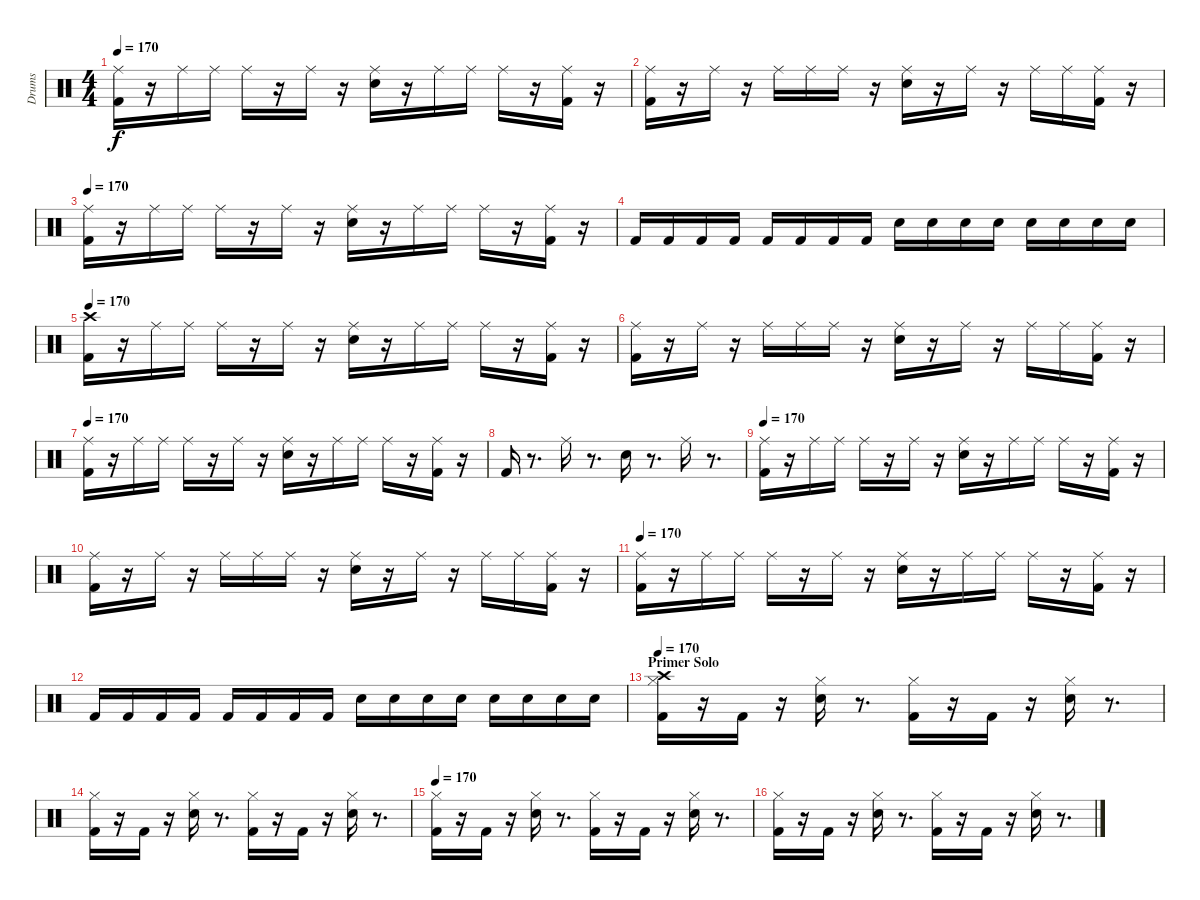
\track ("Drums               " "Drums     ") {instrument percussion}
\staff {score}
\articulation defaults
\ts (4 4)
\tempo 170
\clef neutral
\ks c
("Kick (hit) 2" "Ride (middle)").16{dy f} r.16 "Ride (middle)".16 "Ride (middle)".16 "Ride (middle)".16 r.16 "Ride (middle)".16 r.16 ("Snare (hit) 2" "Ride (middle)").16 r.16 "Ride (middle)".16 "Ride (middle)".16 "Ride (middle)".16 r.16 ("Kick (hit) 2" "Ride (middle)").16 r.16 |
("Kick (hit) 2" "Ride (middle)").16 r.16 "Ride (middle)".16 r.16 "Ride (middle)".16 "Ride (middle)".16 "Ride (middle)".16 r.16 ("Snare (hit) 2" "Ride (middle)").16 r.16 "Ride (middle)".16 r.16 "Ride (middle)".16 "Ride (middle)".16 ("Ride (middle)" "Kick (hit) 2").16 r.16 |
\tempo 170
("Kick (hit) 2" "Ride (middle)").16 r.16 "Ride (middle)".16 "Ride (middle)".16 "Ride (middle)".16 r.16 "Ride (middle)".16 r.16 ("Snare (hit) 2" "Ride (middle)").16 r.16 "Ride (middle)".16 "Ride (middle)".16 "Ride (middle)".16 r.16 ("Kick (hit) 2" "Ride (middle)").16 r.16 |
"Kick (hit) 2".16 "Kick (hit) 2".16 "Kick (hit) 2".16 "Kick (hit) 2".16 "Kick (hit) 2".16 "Kick (hit) 2".16 "Kick (hit) 2".16 "Kick (hit) 2".16 "Snare (hit) 2".16 "Snare (hit) 2".16 "Snare (hit) 2".16 "Snare (hit) 2".16 "Snare (hit) 2".16 "Snare (hit) 2".16 "Snare (hit) 2".16 "Snare (hit) 2".16 |
\tempo 170
("Kick (hit) 2" "Crash high (hit)").16 r.16 "Ride (middle)".16 "Ride (middle)".16 "Ride (middle)".16 r.16 "Ride (middle)".16 r.16 ("Snare (hit) 2" "Ride (middle)").16 r.16 "Ride (middle)".16 "Ride (middle)".16 "Ride (middle)".16 r.16 ("Kick (hit) 2" "Ride (middle)").16 r.16 |
("Kick (hit) 2" "Ride (middle)").16 r.16 "Ride (middle)".16 r.16 "Ride (middle)".16 "Ride (middle)".16 "Ride (middle)".16 r.16 ("Snare (hit) 2" "Ride (middle)").16 r.16 "Ride (middle)".16 r.16 "Ride (middle)".16 "Ride (middle)".16 ("Ride (middle)" "Kick (hit) 2").16 r.16 |
\tempo 170
("Kick (hit) 2" "Ride (middle)").16 r.16 "Ride (middle)".16 "Ride (middle)".16 "Ride (middle)".16 r.16 "Ride (middle)".16 r.16 ("Snare (hit) 2" "Ride (middle)").16 r.16 "Ride (middle)".16 "Ride (middle)".16 "Ride (middle)".16 r.16 ("Kick (hit) 2" "Ride (middle)").16 r.16 |
"Kick (hit) 2".16 r.8{d} "Ride (middle)".16 r.8{d} "Snare (hit) 2".16 r.8{d} "Ride (middle)".16 r.8{d} |
\tempo 170
("Kick (hit) 2" "Ride (middle)").16 r.16 "Ride (middle)".16 "Ride (middle)".16 "Ride (middle)".16 r.16 "Ride (middle)".16 r.16 ("Snare (hit) 2" "Ride (middle)").16 r.16 "Ride (middle)".16 "Ride (middle)".16 "Ride (middle)".16 r.16 ("Kick (hit) 2" "Ride (middle)").16 r.16 |
("Kick (hit) 2" "Ride (middle)").16 r.16 "Ride (middle)".16 r.16 "Ride (middle)".16 "Ride (middle)".16 "Ride (middle)".16 r.16 ("Snare (hit) 2" "Ride (middle)").16 r.16 "Ride (middle)".16 r.16 "Ride (middle)".16 "Ride (middle)".16 ("Ride (middle)" "Kick (hit) 2").16 r.16 |
\tempo 170
("Kick (hit) 2" "Ride (middle)").16 r.16 "Ride (middle)".16 "Ride (middle)".16 "Ride (middle)".16 r.16 "Ride (middle)".16 r.16 ("Snare (hit) 2" "Ride (middle)").16 r.16 "Ride (middle)".16 "Ride (middle)".16 "Ride (middle)".16 r.16 ("Kick (hit) 2" "Ride (middle)").16 r.16 |
"Kick (hit) 2".16 "Kick (hit) 2".16 "Kick (hit) 2".16 "Kick (hit) 2".16 "Kick (hit) 2".16 "Kick (hit) 2".16 "Kick (hit) 2".16 "Kick (hit) 2".16 "Snare (hit) 2".16 "Snare (hit) 2".16 "Snare (hit) 2".16 "Snare (hit) 2".16 "Snare (hit) 2".16 "Snare (hit) 2".16 "Snare (hit) 2".16 "Snare (hit) 2".16 |
\section ("" "Primer Solo")
\tempo 170
("Kick (hit) 2" "Hi-Hat (closed)" "Crash high (hit)").16 r.16 "Kick (hit) 2".16 r.16 ("Snare (hit) 2" "Hi-Hat (closed)").16 r.8{d} ("Kick (hit) 2" "Hi-Hat (closed)").16 r.16 "Kick (hit) 2".16 r.16 ("Snare (hit) 2" "Hi-Hat (closed)").16 r.8{d} |
("Kick (hit) 2" "Hi-Hat (closed)").16 r.16 "Kick (hit) 2".16 r.16 ("Snare (hit) 2" "Hi-Hat (closed)").16 r.8{d} ("Kick (hit) 2" "Hi-Hat (closed)").16 r.16 "Kick (hit) 2".16 r.16 ("Snare (hit) 2" "Hi-Hat (closed)").16 r.8{d} |
\tempo 170
("Kick (hit) 2" "Hi-Hat (closed)").16 r.16 "Kick (hit) 2".16 r.16 ("Snare (hit) 2" "Hi-Hat (closed)").16 r.8{d} ("Kick (hit) 2" "Hi-Hat (closed)").16 r.16 "Kick (hit) 2".16 r.16 ("Snare (hit) 2" "Hi-Hat (closed)").16 r.8{d} |
("Kick (hit) 2" "Hi-Hat (closed)").16 r.16 "Kick (hit) 2".16 r.16 ("Snare (hit) 2" "Hi-Hat (closed)").16 r.8{d} ("Kick (hit) 2" "Hi-Hat (closed)").16 r.16 "Kick (hit) 2".16 r.16 ("Snare (hit) 2" "Hi-Hat (closed)").16 r.8{d}
